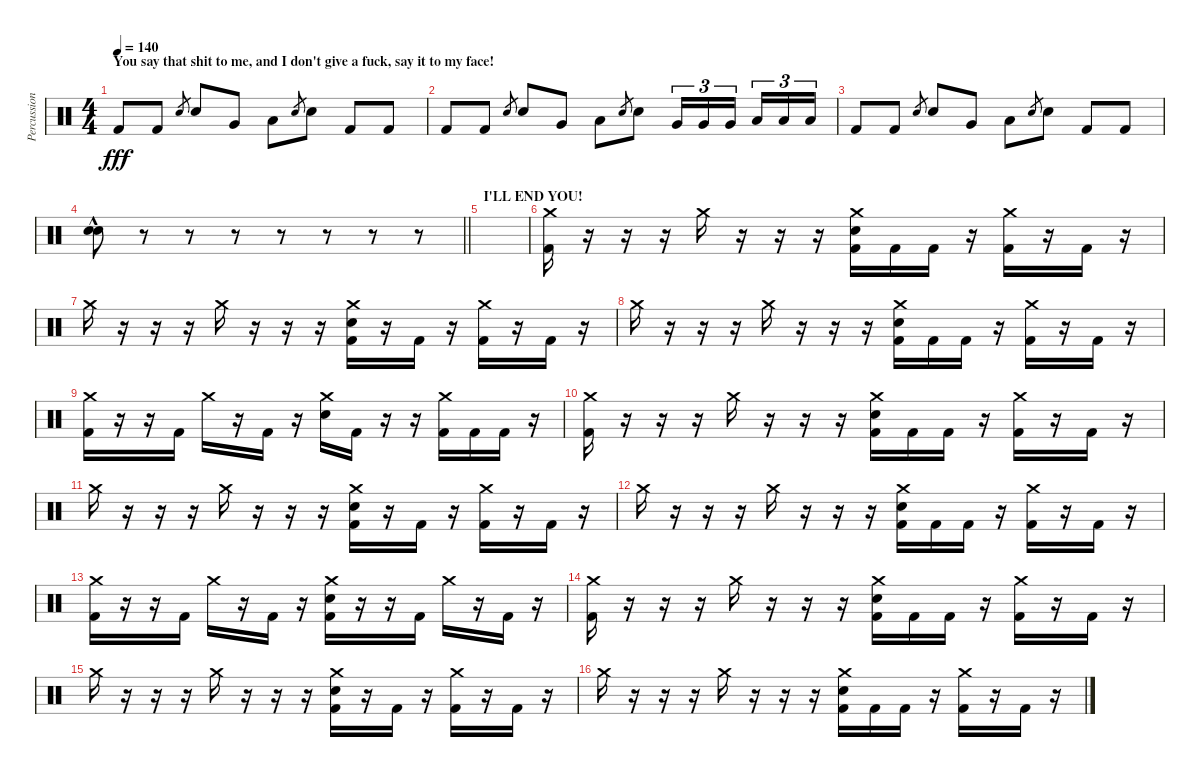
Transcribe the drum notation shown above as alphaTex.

\track ("Percussion" "Percussion") {instrument percussion}
\staff {score}
\articulation defaults
\ts (4 4)
\section ("" "You say that shit to me, and I don't give a fuck, say it to my face!")
\tempo 140
\clef neutral
\ks c "Kick (hit) 2".8{dy fff} "Kick (hit) 2".8 "Electric Snare (hit)".8{gr} "Electric Snare (hit)".8 "Very Low Tom (hit)".8 "Low Tom (hit)".8 "Electric Snare (hit)".8{gr} "Electric Snare (hit)".8 "Kick (hit) 2".8 "Kick (hit) 2".8
|
"Kick (hit) 2".8 "Kick (hit) 2".8 "Electric Snare (hit)".8{gr} "Electric Snare (hit)".8 "Very Low Tom (hit)".8 "Low Tom (hit)".8 "Electric Snare (hit)".8{gr} "Electric Snare (hit)".8 "Very Low Tom (hit)".16{tu (3 2)} "Very Low Tom (hit)".16{tu (3 2)} "Very Low Tom (hit)".16{tu (3 2) beam splitsecondary} "Low Tom (hit)".16{tu (3 2)} "Low Tom (hit)".16{tu (3 2)} "Low Tom (hit)".16{tu (3 2)} |
"Kick (hit) 2".8 "Kick (hit) 2".8 "Electric Snare (hit)".8{gr} "Electric Snare (hit)".8 "Very Low Tom (hit)".8 "Low Tom (hit)".8 "Electric Snare (hit)".8{gr} "Electric Snare (hit)".8 "Kick (hit) 2".8 "Kick (hit) 2".8 |
\barLineRight lightlight
("Electric Snare (hit)"{hac} "Snare (hit) 2"{hac}).8 r.8 r.8 r.8 r.8 r.8 r.8 r.8 |
\section ("" "I'LL END YOU!")
|
("Crash medium (hit)" "Kick (hit) 2").16 r.16 r.16 r.16 "Crash medium (hit)".16 r.16 r.16 r.16 ("Crash medium (hit)" "Electric Snare (hit)" "Kick (hit) 2").16 "Kick (hit) 2".16 "Kick (hit) 2".16 r.16 ("Crash medium (hit)" "Kick (hit) 2").16 r.16 "Kick (hit) 2".16 r.16 |
"Crash medium (hit)".16 r.16 r.16 r.16 "Crash medium (hit)".16 r.16 r.16 r.16 ("Crash medium (hit)" "Electric Snare (hit)" "Kick (hit) 2").16 r.16 "Kick (hit) 2".16 r.16 ("Crash medium (hit)" "Kick (hit) 2").16 r.16 "Kick (hit) 2".16 r.16 |
"Crash medium (hit)".16 r.16 r.16 r.16 "Crash medium (hit)".16 r.16 r.16 r.16 ("Crash medium (hit)" "Electric Snare (hit)" "Kick (hit) 2").16 "Kick (hit) 2".16 "Kick (hit) 2".16 r.16 ("Crash medium (hit)" "Kick (hit) 2").16 r.16 "Kick (hit) 2".16 r.16 |
("Crash medium (hit)" "Kick (hit) 2").16 r.16 r.16 "Kick (hit) 2".16 "Crash medium (hit)".16 r.16 "Kick (hit) 2".16 r.16 ("Crash medium (hit)" "Electric Snare (hit)").16 "Kick (hit) 2".16 r.16 r.16 ("Crash medium (hit)" "Kick (hit) 2").16 "Kick (hit) 2".16 "Kick (hit) 2".16 r.16 |
("Crash medium (hit)" "Kick (hit) 2").16 r.16 r.16 r.16 "Crash medium (hit)".16 r.16 r.16 r.16 ("Crash medium (hit)" "Electric Snare (hit)" "Kick (hit) 2").16 "Kick (hit) 2".16 "Kick (hit) 2".16 r.16 ("Crash medium (hit)" "Kick (hit) 2").16 r.16 "Kick (hit) 2".16 r.16 |
"Crash medium (hit)".16 r.16 r.16 r.16 "Crash medium (hit)".16 r.16 r.16 r.16 ("Crash medium (hit)" "Electric Snare (hit)" "Kick (hit) 2").16 r.16 "Kick (hit) 2".16 r.16 ("Crash medium (hit)" "Kick (hit) 2").16 r.16 "Kick (hit) 2".16 r.16 |
"Crash medium (hit)".16 r.16 r.16 r.16 "Crash medium (hit)".16 r.16 r.16 r.16 ("Crash medium (hit)" "Electric Snare (hit)" "Kick (hit) 2").16 "Kick (hit) 2".16 "Kick (hit) 2".16 r.16 ("Crash medium (hit)" "Kick (hit) 2").16 r.16 "Kick (hit) 2".16 r.16 |
("Crash medium (hit)" "Kick (hit) 2").16 r.16 r.16 "Kick (hit) 2".16 "Crash medium (hit)".16 r.16 "Kick (hit) 2".16 r.16 ("Crash medium (hit)" "Electric Snare (hit)" "Kick (hit) 2").16 r.16 r.16 "Kick (hit) 2".16 "Crash medium (hit)".16 r.16 "Kick (hit) 2".16 r.16 |
("Crash medium (hit)" "Kick (hit) 2").16 r.16 r.16 r.16 "Crash medium (hit)".16 r.16 r.16 r.16 ("Crash medium (hit)" "Electric Snare (hit)" "Kick (hit) 2").16 "Kick (hit) 2".16 "Kick (hit) 2".16 r.16 ("Crash medium (hit)" "Kick (hit) 2").16 r.16 "Kick (hit) 2".16 r.16 |
"Crash medium (hit)".16 r.16 r.16 r.16 "Crash medium (hit)".16 r.16 r.16 r.16 ("Crash medium (hit)" "Electric Snare (hit)" "Kick (hit) 2").16 r.16 "Kick (hit) 2".16 r.16 ("Crash medium (hit)" "Kick (hit) 2").16 r.16 "Kick (hit) 2".16 r.16 |
"Crash medium (hit)".16 r.16 r.16 r.16 "Crash medium (hit)".16 r.16 r.16 r.16 ("Crash medium (hit)" "Electric Snare (hit)" "Kick (hit) 2").16 "Kick (hit) 2".16 "Kick (hit) 2".16 r.16 ("Crash medium (hit)" "Kick (hit) 2").16 r.16 "Kick (hit) 2".16 r.16
